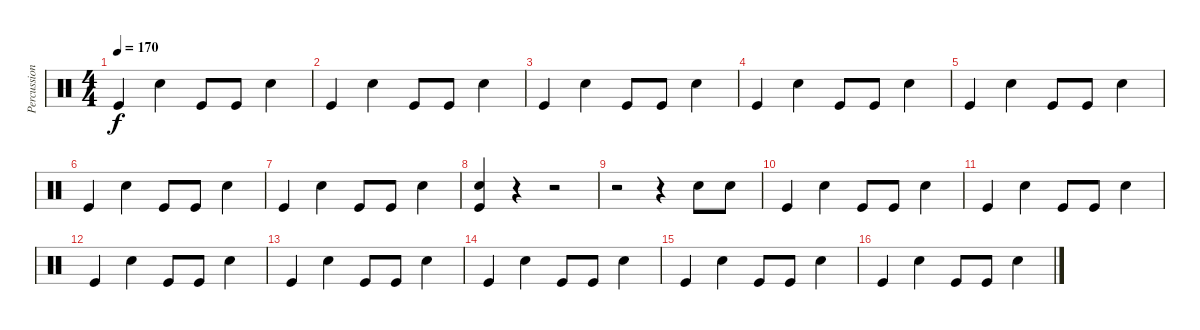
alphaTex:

\track ("Percussion" "Percussion") {instrument percussion}
\staff {score}
\articulation defaults
\ts (4 4)
\tempo 170
\clef neutral
\ks c "Kick (hit)".4{dy f} "Snare (hit) 2".4 "Kick (hit)".8 "Kick (hit)".8 "Snare (hit) 2".4
|
"Kick (hit)".4 "Snare (hit) 2".4 "Kick (hit)".8 "Kick (hit)".8 "Snare (hit) 2".4 |
"Kick (hit)".4 "Snare (hit) 2".4 "Kick (hit)".8 "Kick (hit)".8 "Snare (hit) 2".4 |
"Kick (hit)".4 "Snare (hit) 2".4 "Kick (hit)".8 "Kick (hit)".8 "Snare (hit) 2".4 |
"Kick (hit)".4 "Snare (hit) 2".4 "Kick (hit)".8 "Kick (hit)".8 "Snare (hit) 2".4 |
"Kick (hit)".4 "Snare (hit) 2".4 "Kick (hit)".8 "Kick (hit)".8 "Snare (hit) 2".4 |
"Kick (hit)".4 "Snare (hit) 2".4 "Kick (hit)".8 "Kick (hit)".8 "Snare (hit) 2".4 |
("Snare (hit) 2" "Kick (hit)").4 r.4 r.2 |
r.2 r.4 "Snare (hit) 2".8 "Snare (hit) 2".8 |
"Kick (hit)".4 "Snare (hit) 2".4 "Kick (hit)".8 "Kick (hit)".8 "Snare (hit) 2".4 |
"Kick (hit)".4 "Snare (hit) 2".4 "Kick (hit)".8 "Kick (hit)".8 "Snare (hit) 2".4 |
"Kick (hit)".4 "Snare (hit) 2".4 "Kick (hit)".8 "Kick (hit)".8 "Snare (hit) 2".4 |
"Kick (hit)".4 "Snare (hit) 2".4 "Kick (hit)".8 "Kick (hit)".8 "Snare (hit) 2".4 |
"Kick (hit)".4 "Snare (hit) 2".4 "Kick (hit)".8 "Kick (hit)".8 "Snare (hit) 2".4 |
"Kick (hit)".4 "Snare (hit) 2".4 "Kick (hit)".8 "Kick (hit)".8 "Snare (hit) 2".4 |
"Kick (hit)".4 "Snare (hit) 2".4 "Kick (hit)".8 "Kick (hit)".8 "Snare (hit) 2".4
